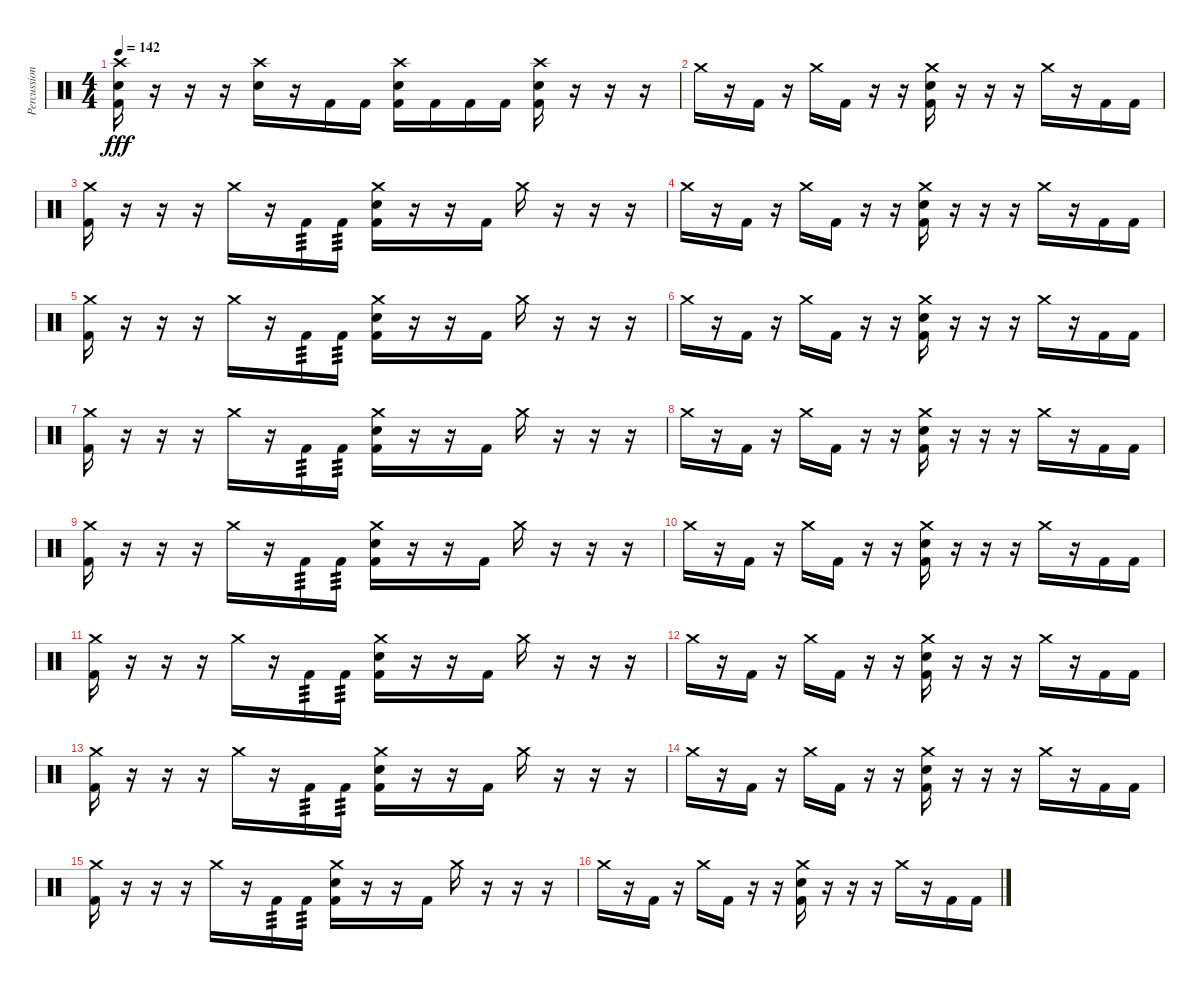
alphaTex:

\track ("Percussion" "Percussion") {instrument percussion}
\staff {score}
\articulation defaults
\ts (4 4)
\tempo 142
\clef neutral
\ks c
("Crash high (hit)" "Electric Snare (hit)" "Kick (hit) 2").16{dy fff} r.16 r.16 r.16 ("Crash high (hit)" "Electric Snare (hit)").16 r.16 "Kick (hit) 2".16 "Kick (hit) 2".16 ("Crash high (hit)" "Electric Snare (hit)" "Kick (hit) 2").16 "Kick (hit) 2".16 "Kick (hit) 2".16 "Kick (hit) 2".16 ("Crash high (hit)" "Electric Snare (hit)" "Kick (hit) 2").16 r.16 r.16 r.16 |
"Crash medium (hit)".16 r.16 "Kick (hit) 2".16 r.16 "Crash medium (hit)".16 "Kick (hit) 2".16 r.16 r.16 ("Crash medium (hit)" "Electric Snare (hit)" "Kick (hit) 2").16 r.16 r.16 r.16 "Crash medium (hit)".16 r.16 "Kick (hit) 2".16 "Kick (hit) 2".16 |
("Crash medium (hit)" "Kick (hit) 2").16 r.16 r.16 r.16 "Crash medium (hit)".16 r.16 "Kick (hit) 2".16{tp 3} "Kick (hit) 2".16{tp 3} ("Crash medium (hit)" "Electric Snare (hit)" "Kick (hit) 2").16 r.16 r.16 "Kick (hit) 2".16 "Crash medium (hit)".16 r.16 r.16 r.16 |
"Crash medium (hit)".16 r.16 "Kick (hit) 2".16 r.16 "Crash medium (hit)".16 "Kick (hit) 2".16 r.16 r.16 ("Crash medium (hit)" "Electric Snare (hit)" "Kick (hit) 2").16 r.16 r.16 r.16 "Crash medium (hit)".16 r.16 "Kick (hit) 2".16 "Kick (hit) 2".16 |
("Crash medium (hit)" "Kick (hit) 2").16 r.16 r.16 r.16 "Crash medium (hit)".16 r.16 "Kick (hit) 2".16{tp 3} "Kick (hit) 2".16{tp 3} ("Crash medium (hit)" "Electric Snare (hit)" "Kick (hit) 2").16 r.16 r.16 "Kick (hit) 2".16 "Crash medium (hit)".16 r.16 r.16 r.16 |
"Crash medium (hit)".16 r.16 "Kick (hit) 2".16 r.16 "Crash medium (hit)".16 "Kick (hit) 2".16 r.16 r.16 ("Crash medium (hit)" "Electric Snare (hit)" "Kick (hit) 2").16 r.16 r.16 r.16 "Crash medium (hit)".16 r.16 "Kick (hit) 2".16 "Kick (hit) 2".16 |
("Crash medium (hit)" "Kick (hit) 2").16 r.16 r.16 r.16 "Crash medium (hit)".16 r.16 "Kick (hit) 2".16{tp 3} "Kick (hit) 2".16{tp 3} ("Crash medium (hit)" "Electric Snare (hit)" "Kick (hit) 2").16 r.16 r.16 "Kick (hit) 2".16 "Crash medium (hit)".16 r.16 r.16 r.16 |
"Crash medium (hit)".16 r.16 "Kick (hit) 2".16 r.16 "Crash medium (hit)".16 "Kick (hit) 2".16 r.16 r.16 ("Crash medium (hit)" "Electric Snare (hit)" "Kick (hit) 2").16 r.16 r.16 r.16 "Crash medium (hit)".16 r.16 "Kick (hit) 2".16 "Kick (hit) 2".16 |
("Crash medium (hit)" "Kick (hit) 2").16 r.16 r.16 r.16 "Crash medium (hit)".16 r.16 "Kick (hit) 2".16{tp 3} "Kick (hit) 2".16{tp 3} ("Crash medium (hit)" "Electric Snare (hit)" "Kick (hit) 2").16 r.16 r.16 "Kick (hit) 2".16 "Crash medium (hit)".16 r.16 r.16 r.16 |
"Crash medium (hit)".16 r.16 "Kick (hit) 2".16 r.16 "Crash medium (hit)".16 "Kick (hit) 2".16 r.16 r.16 ("Crash medium (hit)" "Electric Snare (hit)" "Kick (hit) 2").16 r.16 r.16 r.16 "Crash medium (hit)".16 r.16 "Kick (hit) 2".16 "Kick (hit) 2".16 |
("Crash medium (hit)" "Kick (hit) 2").16 r.16 r.16 r.16 "Crash medium (hit)".16 r.16 "Kick (hit) 2".16{tp 3} "Kick (hit) 2".16{tp 3} ("Crash medium (hit)" "Electric Snare (hit)" "Kick (hit) 2").16 r.16 r.16 "Kick (hit) 2".16 "Crash medium (hit)".16 r.16 r.16 r.16 |
"Crash medium (hit)".16 r.16 "Kick (hit) 2".16 r.16 "Crash medium (hit)".16 "Kick (hit) 2".16 r.16 r.16 ("Crash medium (hit)" "Electric Snare (hit)" "Kick (hit) 2").16 r.16 r.16 r.16 "Crash medium (hit)".16 r.16 "Kick (hit) 2".16 "Kick (hit) 2".16 |
("Crash medium (hit)" "Kick (hit) 2").16 r.16 r.16 r.16 "Crash medium (hit)".16 r.16 "Kick (hit) 2".16{tp 3} "Kick (hit) 2".16{tp 3} ("Crash medium (hit)" "Electric Snare (hit)" "Kick (hit) 2").16 r.16 r.16 "Kick (hit) 2".16 "Crash medium (hit)".16 r.16 r.16 r.16 |
"Crash medium (hit)".16 r.16 "Kick (hit) 2".16 r.16 "Crash medium (hit)".16 "Kick (hit) 2".16 r.16 r.16 ("Crash medium (hit)" "Electric Snare (hit)" "Kick (hit) 2").16 r.16 r.16 r.16 "Crash medium (hit)".16 r.16 "Kick (hit) 2".16 "Kick (hit) 2".16 |
("Crash medium (hit)" "Kick (hit) 2").16 r.16 r.16 r.16 "Crash medium (hit)".16 r.16 "Kick (hit) 2".16{tp 3} "Kick (hit) 2".16{tp 3} ("Crash medium (hit)" "Electric Snare (hit)" "Kick (hit) 2").16 r.16 r.16 "Kick (hit) 2".16 "Crash medium (hit)".16 r.16 r.16 r.16 |
"Crash medium (hit)".16 r.16 "Kick (hit) 2".16 r.16 "Crash medium (hit)".16 "Kick (hit) 2".16 r.16 r.16 ("Crash medium (hit)" "Electric Snare (hit)" "Kick (hit) 2").16 r.16 r.16 r.16 "Crash medium (hit)".16 r.16 "Kick (hit) 2".16 "Kick (hit) 2".16
